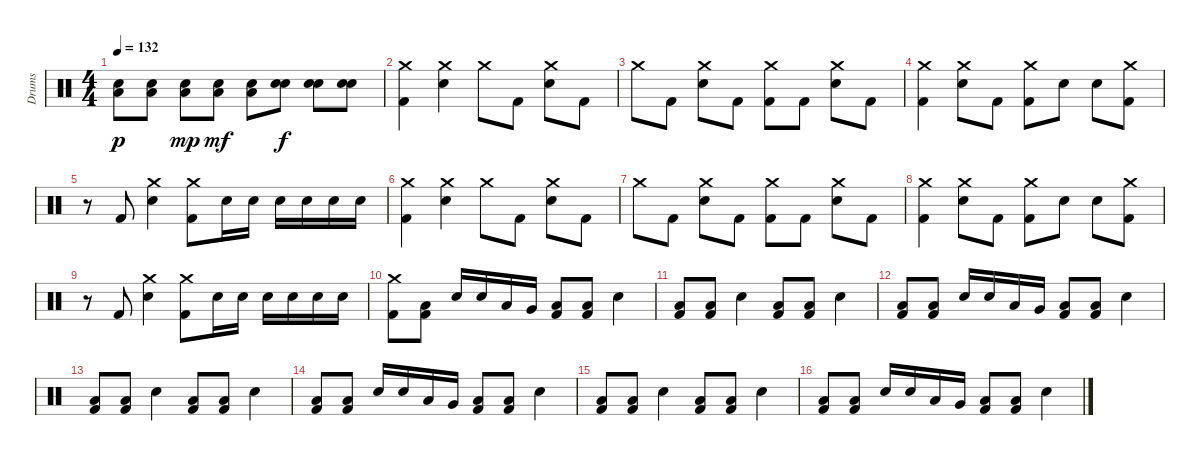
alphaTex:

\track ("Drums" "Drums") {instrument percussion}
\staff
\articulation defaults
\ts (4 4)
\tempo 132
\clef neutral
\ks c
("Low Floor Tom (hit)" "Snare (hit) 2").8{dy p} ("Low Floor Tom (hit)" "Snare (hit) 2").8 ("Low Floor Tom (hit)" "Snare (hit) 2").8{dy mp} ("Low Floor Tom (hit)" "Snare (hit) 2").8{dy mf} ("Low Floor Tom (hit)" "Snare (hit) 2").8 ("Snare (hit) 2" "Snare (hit) 2").8{dy f} ("Snare (hit) 2" "Snare (hit) 2").8 ("Snare (hit) 2" "Snare (hit) 2").8 |
("Crash medium (hit)" "Kick (hit) 2").4 ("Crash medium (hit)" "Snare (hit) 2").4 "Crash medium (hit)".8 "Kick (hit) 2".8 ("Crash medium (hit)" "Snare (hit) 2").8 "Kick (hit) 2".8 |
"Crash medium (hit)".8 "Kick (hit) 2".8 ("Crash medium (hit)" "Snare (hit) 2").8 "Kick (hit) 2".8 ("Crash medium (hit)" "Kick (hit) 2").8 "Kick (hit) 2".8 ("Crash medium (hit)" "Snare (hit) 2").8 "Kick (hit) 2".8 |
("Crash medium (hit)" "Kick (hit) 2").4 ("Crash medium (hit)" "Snare (hit) 2").8 "Kick (hit) 2".8 ("Crash medium (hit)" "Kick (hit) 2").8 "Snare (hit) 2".8 "Snare (hit) 2".8 ("Crash medium (hit)" "Kick (hit) 2").8 |
r.8 "Kick (hit) 2".8 ("Crash medium (hit)" "Snare (hit) 2").4 ("Crash medium (hit)" "Kick (hit) 2").8 "Snare (hit) 2".16 "Snare (hit) 2".16 "Snare (hit) 2".16 "Snare (hit) 2".16 "Snare (hit) 2".16 "Snare (hit) 2".16 |
("Crash medium (hit)" "Kick (hit) 2").4 ("Crash medium (hit)" "Snare (hit) 2").4 "Crash medium (hit)".8 "Kick (hit) 2".8 ("Crash medium (hit)" "Snare (hit) 2").8 "Kick (hit) 2".8 |
"Crash medium (hit)".8 "Kick (hit) 2".8 ("Crash medium (hit)" "Snare (hit) 2").8 "Kick (hit) 2".8 ("Crash medium (hit)" "Kick (hit) 2").8 "Kick (hit) 2".8 ("Crash medium (hit)" "Snare (hit) 2").8 "Kick (hit) 2".8 |
("Crash medium (hit)" "Kick (hit) 2").4 ("Crash medium (hit)" "Snare (hit) 2").8 "Kick (hit) 2".8 ("Crash medium (hit)" "Kick (hit) 2").8 "Snare (hit) 2".8 "Snare (hit) 2".8 ("Crash medium (hit)" "Kick (hit) 2").8 |
r.8 "Kick (hit) 2".8 ("Crash medium (hit)" "Snare (hit) 2").4 ("Crash medium (hit)" "Kick (hit) 2").8 "Snare (hit) 2".16 "Snare (hit) 2".16 "Snare (hit) 2".16 "Snare (hit) 2".16 "Snare (hit) 2".16 "Snare (hit) 2".16 |
("Crash medium (hit)" "Kick (hit) 2").8 ("Low Floor Tom (hit)" "Kick (hit) 2").8 "Snare (hit) 2".16 "Snare (hit) 2".16 "Low Floor Tom (hit)".16 "Very Low Tom (hit)".16 ("Low Floor Tom (hit)" "Kick (hit) 2").8 ("Low Floor Tom (hit)" "Kick (hit) 2").8 "Snare (hit) 2".4 |
("Low Floor Tom (hit)" "Kick (hit) 2").8 ("Low Floor Tom (hit)" "Kick (hit) 2").8 "Snare (hit) 2".4 ("Low Floor Tom (hit)" "Kick (hit) 2").8 ("Low Floor Tom (hit)" "Kick (hit) 2").8 "Snare (hit) 2".4 |
("Low Floor Tom (hit)" "Kick (hit) 2").8 ("Low Floor Tom (hit)" "Kick (hit) 2").8 "Snare (hit) 2".16 "Snare (hit) 2".16 "Low Floor Tom (hit)".16 "Very Low Tom (hit)".16 ("Low Floor Tom (hit)" "Kick (hit) 2").8 ("Low Floor Tom (hit)" "Kick (hit) 2").8 "Snare (hit) 2".4 |
("Low Floor Tom (hit)" "Kick (hit) 2").8 ("Low Floor Tom (hit)" "Kick (hit) 2").8 "Snare (hit) 2".4 ("Low Floor Tom (hit)" "Kick (hit) 2").8 ("Low Floor Tom (hit)" "Kick (hit) 2").8 "Snare (hit) 2".4 |
("Low Floor Tom (hit)" "Kick (hit) 2").8 ("Low Floor Tom (hit)" "Kick (hit) 2").8 "Snare (hit) 2".16 "Snare (hit) 2".16 "Low Floor Tom (hit)".16 "Very Low Tom (hit)".16 ("Low Floor Tom (hit)" "Kick (hit) 2").8 ("Low Floor Tom (hit)" "Kick (hit) 2").8 "Snare (hit) 2".4 |
("Low Floor Tom (hit)" "Kick (hit) 2").8 ("Low Floor Tom (hit)" "Kick (hit) 2").8 "Snare (hit) 2".4 ("Low Floor Tom (hit)" "Kick (hit) 2").8 ("Low Floor Tom (hit)" "Kick (hit) 2").8 "Snare (hit) 2".4 |
("Low Floor Tom (hit)" "Kick (hit) 2").8 ("Low Floor Tom (hit)" "Kick (hit) 2").8 "Snare (hit) 2".16 "Snare (hit) 2".16 "Low Floor Tom (hit)".16 "Very Low Tom (hit)".16 ("Low Floor Tom (hit)" "Kick (hit) 2").8 ("Low Floor Tom (hit)" "Kick (hit) 2").8 "Snare (hit) 2".4
